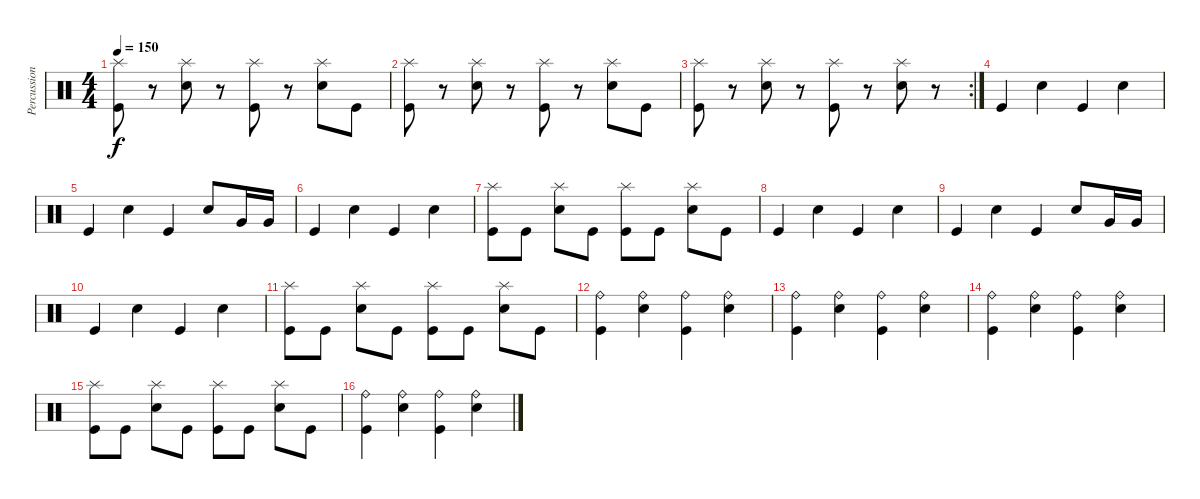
\track ("Percussions" "Percussion") {instrument percussion}
\staff {score}
\articulation defaults
\ts (4 4)
\tempo 150
\clef neutral
\ks c
("Kick (hit)" "Splash (hit)").8{dy f} r.8 ("Electric Snare (hit)" "Splash (hit)").8 r.8 ("Kick (hit)" "Splash (hit)").8 r.8 ("Electric Snare (hit)" "Splash (hit)").8 "Kick (hit)".8 |
("Kick (hit)" "Splash (hit)").8 r.8 ("Electric Snare (hit)" "Splash (hit)").8 r.8 ("Kick (hit)" "Splash (hit)").8 r.8 ("Electric Snare (hit)" "Splash (hit)").8 "Kick (hit)".8 |
\rc 2
("Kick (hit)" "Splash (hit)").8 r.8 ("Electric Snare (hit)" "Splash (hit)").8 r.8 ("Kick (hit)" "Splash (hit)").8 r.8 ("Electric Snare (hit)" "Splash (hit)").8 r.8 |
"Kick (hit)".4 "Electric Snare (hit)".4 "Kick (hit)".4 "Electric Snare (hit)".4 |
"Kick (hit)".4 "Electric Snare (hit)".4 "Kick (hit)".4 "Electric Snare (hit)".8 "Very Low Tom (hit)".16 "Very Low Tom (hit)".16 |
"Kick (hit)".4 "Electric Snare (hit)".4 "Kick (hit)".4 "Electric Snare (hit)".4 |
("Kick (hit)" "Splash (hit)").8 "Kick (hit)".8 ("Electric Snare (hit)" "Splash (hit)").8 "Kick (hit)".8 ("Kick (hit)" "Splash (hit)").8 "Kick (hit)".8 ("Electric Snare (hit)" "Splash (hit)").8 "Kick (hit)".8 |
"Kick (hit)".4 "Electric Snare (hit)".4 "Kick (hit)".4 "Electric Snare (hit)".4 |
"Kick (hit)".4 "Electric Snare (hit)".4 "Kick (hit)".4 "Electric Snare (hit)".8 "Very Low Tom (hit)".16 "Very Low Tom (hit)".16 |
"Kick (hit)".4 "Electric Snare (hit)".4 "Kick (hit)".4 "Electric Snare (hit)".4 |
("Kick (hit)" "Splash (hit)").8 "Kick (hit)".8 ("Electric Snare (hit)" "Splash (hit)").8 "Kick (hit)".8 ("Kick (hit)" "Splash (hit)").8 "Kick (hit)".8 ("Electric Snare (hit)" "Splash (hit)").8 "Kick (hit)".8 |
("Kick (hit)" "Ride (bell)").4 ("Electric Snare (hit)" "Ride (bell)").4 ("Kick (hit)" "Ride (bell)").4 ("Electric Snare (hit)" "Ride (bell)").4 |
("Kick (hit)" "Ride (bell)").4 ("Electric Snare (hit)" "Ride (bell)").4 ("Kick (hit)" "Ride (bell)").4 ("Electric Snare (hit)" "Ride (bell)").4 |
("Kick (hit)" "Ride (bell)").4 ("Electric Snare (hit)" "Ride (bell)").4 ("Kick (hit)" "Ride (bell)").4 ("Electric Snare (hit)" "Ride (bell)").4 |
("Kick (hit)" "Splash (hit)").8 "Kick (hit)".8 ("Electric Snare (hit)" "Splash (hit)").8 "Kick (hit)".8 ("Kick (hit)" "Splash (hit)").8 "Kick (hit)".8 ("Electric Snare (hit)" "Splash (hit)").8 "Kick (hit)".8 |
("Kick (hit)" "Ride (bell)").4 ("Electric Snare (hit)" "Ride (bell)").4 ("Kick (hit)" "Ride (bell)").4 ("Electric Snare (hit)" "Ride (bell)").4
